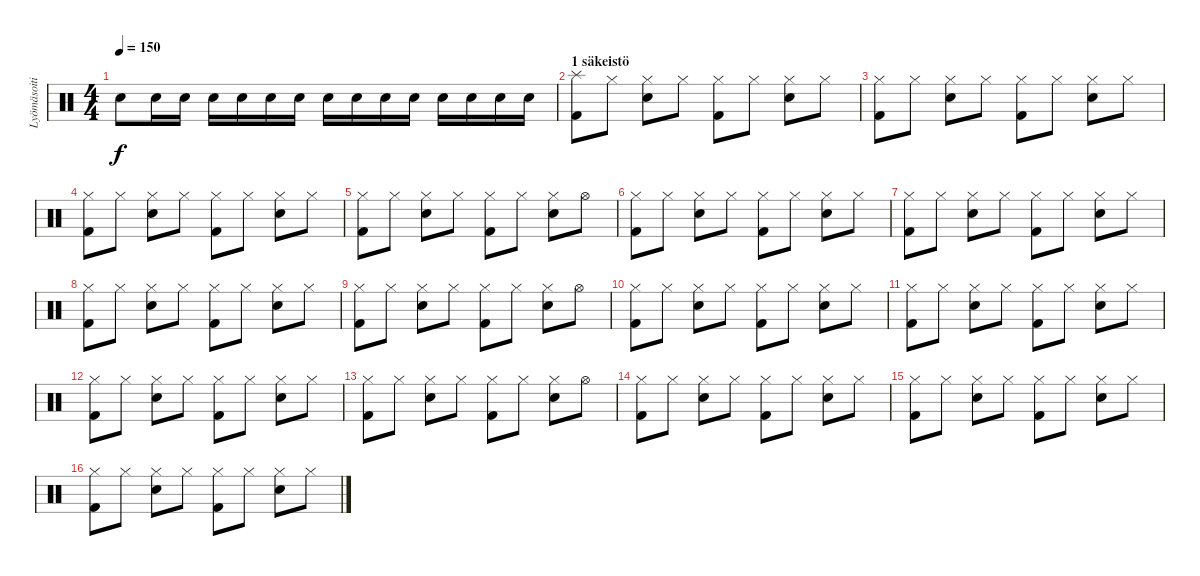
\track ("Lyömäsoitin" "Lyömäsoiti") {instrument percussion}
\staff {score}
\articulation defaults
\ts (4 4)
\tempo 150
\clef neutral
\ks c "Electric Snare (hit)".8{dy f} "Electric Snare (hit)".16 "Electric Snare (hit)".16 "Electric Snare (hit)".16 "Electric Snare (hit)".16 "Electric Snare (hit)".16 "Electric Snare (hit)".16 "Electric Snare (hit)".16 "Electric Snare (hit)".16 "Electric Snare (hit)".16 "Electric Snare (hit)".16 "Electric Snare (hit)".16 "Electric Snare (hit)".16 "Electric Snare (hit)".16 "Electric Snare (hit)".16
|
\section ("" "1 säkeistö")
("Splash (hit)" "Kick (hit) 2").8 "Hi-Hat (closed)".8 ("Hi-Hat (closed)" "Electric Snare (hit)").8 "Hi-Hat (closed)".8 ("Hi-Hat (closed)" "Kick (hit) 2").8 "Hi-Hat (closed)".8 ("Hi-Hat (closed)" "Electric Snare (hit)").8 "Hi-Hat (closed)".8 |
("Hi-Hat (closed)" "Kick (hit) 2").8 "Hi-Hat (closed)".8 ("Hi-Hat (closed)" "Electric Snare (hit)").8 "Hi-Hat (closed)".8 ("Hi-Hat (closed)" "Kick (hit) 2").8 "Hi-Hat (closed)".8 ("Hi-Hat (closed)" "Electric Snare (hit)").8 "Hi-Hat (closed)".8 |
("Hi-Hat (closed)" "Kick (hit) 2").8 "Hi-Hat (closed)".8 ("Hi-Hat (closed)" "Electric Snare (hit)").8 "Hi-Hat (closed)".8 ("Hi-Hat (closed)" "Kick (hit) 2").8 "Hi-Hat (closed)".8 ("Hi-Hat (closed)" "Electric Snare (hit)").8 "Hi-Hat (closed)".8 |
("Hi-Hat (closed)" "Kick (hit) 2").8 "Hi-Hat (closed)".8 ("Hi-Hat (closed)" "Electric Snare (hit)").8 "Hi-Hat (closed)".8 ("Hi-Hat (closed)" "Kick (hit) 2").8 "Hi-Hat (closed)".8 ("Hi-Hat (closed)" "Electric Snare (hit)").8 "Hi-Hat (open)".8 |
("Hi-Hat (closed)" "Kick (hit) 2").8 "Hi-Hat (closed)".8 ("Hi-Hat (closed)" "Electric Snare (hit)").8 "Hi-Hat (closed)".8 ("Hi-Hat (closed)" "Kick (hit) 2").8 "Hi-Hat (closed)".8 ("Hi-Hat (closed)" "Electric Snare (hit)").8 "Hi-Hat (closed)".8 |
("Hi-Hat (closed)" "Kick (hit) 2").8 "Hi-Hat (closed)".8 ("Hi-Hat (closed)" "Electric Snare (hit)").8 "Hi-Hat (closed)".8 ("Hi-Hat (closed)" "Kick (hit) 2").8 "Hi-Hat (closed)".8 ("Hi-Hat (closed)" "Electric Snare (hit)").8 "Hi-Hat (closed)".8 |
("Hi-Hat (closed)" "Kick (hit) 2").8 "Hi-Hat (closed)".8 ("Hi-Hat (closed)" "Electric Snare (hit)").8 "Hi-Hat (closed)".8 ("Hi-Hat (closed)" "Kick (hit) 2").8 "Hi-Hat (closed)".8 ("Hi-Hat (closed)" "Electric Snare (hit)").8 "Hi-Hat (closed)".8 |
("Hi-Hat (closed)" "Kick (hit) 2").8 "Hi-Hat (closed)".8 ("Hi-Hat (closed)" "Electric Snare (hit)").8 "Hi-Hat (closed)".8 ("Hi-Hat (closed)" "Kick (hit) 2").8 "Hi-Hat (closed)".8 ("Hi-Hat (closed)" "Electric Snare (hit)").8 "Hi-Hat (open)".8 |
("Hi-Hat (closed)" "Kick (hit) 2").8 "Hi-Hat (closed)".8 ("Hi-Hat (closed)" "Electric Snare (hit)").8 "Hi-Hat (closed)".8 ("Hi-Hat (closed)" "Kick (hit) 2").8 "Hi-Hat (closed)".8 ("Hi-Hat (closed)" "Electric Snare (hit)").8 "Hi-Hat (closed)".8 |
("Hi-Hat (closed)" "Kick (hit) 2").8 "Hi-Hat (closed)".8 ("Hi-Hat (closed)" "Electric Snare (hit)").8 "Hi-Hat (closed)".8 ("Hi-Hat (closed)" "Kick (hit) 2").8 "Hi-Hat (closed)".8 ("Hi-Hat (closed)" "Electric Snare (hit)").8 "Hi-Hat (closed)".8 |
("Hi-Hat (closed)" "Kick (hit) 2").8 "Hi-Hat (closed)".8 ("Hi-Hat (closed)" "Electric Snare (hit)").8 "Hi-Hat (closed)".8 ("Hi-Hat (closed)" "Kick (hit) 2").8 "Hi-Hat (closed)".8 ("Hi-Hat (closed)" "Electric Snare (hit)").8 "Hi-Hat (closed)".8 |
("Hi-Hat (closed)" "Kick (hit) 2").8 "Hi-Hat (closed)".8 ("Hi-Hat (closed)" "Electric Snare (hit)").8 "Hi-Hat (closed)".8 ("Hi-Hat (closed)" "Kick (hit) 2").8 "Hi-Hat (closed)".8 ("Hi-Hat (closed)" "Electric Snare (hit)").8 "Hi-Hat (open)".8 |
("Hi-Hat (closed)" "Kick (hit) 2").8 "Hi-Hat (closed)".8 ("Hi-Hat (closed)" "Electric Snare (hit)").8 "Hi-Hat (closed)".8 ("Hi-Hat (closed)" "Kick (hit) 2").8 "Hi-Hat (closed)".8 ("Hi-Hat (closed)" "Electric Snare (hit)").8 "Hi-Hat (closed)".8 |
("Hi-Hat (closed)" "Kick (hit) 2").8 "Hi-Hat (closed)".8 ("Hi-Hat (closed)" "Electric Snare (hit)").8 "Hi-Hat (closed)".8 ("Hi-Hat (closed)" "Kick (hit) 2").8 "Hi-Hat (closed)".8 ("Hi-Hat (closed)" "Electric Snare (hit)").8 "Hi-Hat (closed)".8 |
("Hi-Hat (closed)" "Kick (hit) 2").8 "Hi-Hat (closed)".8 ("Hi-Hat (closed)" "Electric Snare (hit)").8 "Hi-Hat (closed)".8 ("Hi-Hat (closed)" "Kick (hit) 2").8 "Hi-Hat (closed)".8 ("Hi-Hat (closed)" "Electric Snare (hit)").8 "Hi-Hat (closed)".8
